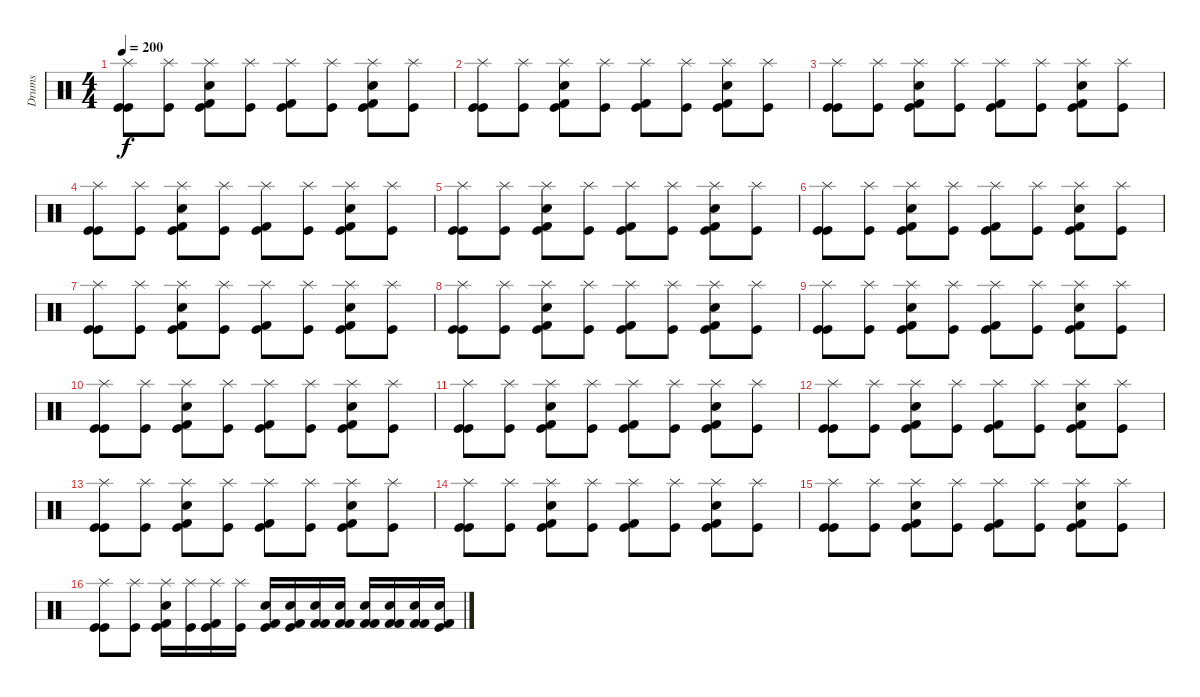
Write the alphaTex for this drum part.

\track ("Drums" "Drums") {instrument percussion}
\staff {score}
\articulation defaults
\ts (4 4)
\tempo 200
\clef neutral
\ks c
("Splash (hit)" "Kick (hit)" "Kick (hit)").8{dy f} ("Splash (hit)" "Kick (hit)").8 ("Splash (hit)" "Snare (hit) 2" "Kick (hit) 2" "Kick (hit)").8 ("Splash (hit)" "Kick (hit)").8 ("Splash (hit)" "Kick (hit) 2" "Kick (hit)").8 ("Splash (hit)" "Kick (hit)").8 ("Splash (hit)" "Snare (hit) 2" "Kick (hit) 2" "Kick (hit)").8 ("Splash (hit)" "Kick (hit)").8 |
("Splash (hit)" "Kick (hit)" "Kick (hit)").8 ("Splash (hit)" "Kick (hit)").8 ("Splash (hit)" "Snare (hit) 2" "Kick (hit) 2" "Kick (hit)").8 ("Splash (hit)" "Kick (hit)").8 ("Splash (hit)" "Kick (hit) 2" "Kick (hit)").8 ("Splash (hit)" "Kick (hit)").8 ("Splash (hit)" "Snare (hit) 2" "Kick (hit) 2" "Kick (hit)").8 ("Splash (hit)" "Kick (hit)").8 |
("Splash (hit)" "Kick (hit)" "Kick (hit)").8 ("Splash (hit)" "Kick (hit)").8 ("Splash (hit)" "Snare (hit) 2" "Kick (hit) 2" "Kick (hit)").8 ("Splash (hit)" "Kick (hit)").8 ("Splash (hit)" "Kick (hit) 2" "Kick (hit)").8 ("Splash (hit)" "Kick (hit)").8 ("Splash (hit)" "Snare (hit) 2" "Kick (hit) 2" "Kick (hit)").8 ("Splash (hit)" "Kick (hit)").8 |
("Splash (hit)" "Kick (hit)" "Kick (hit)").8 ("Splash (hit)" "Kick (hit)").8 ("Splash (hit)" "Snare (hit) 2" "Kick (hit) 2" "Kick (hit)").8 ("Splash (hit)" "Kick (hit)").8 ("Splash (hit)" "Kick (hit) 2" "Kick (hit)").8 ("Splash (hit)" "Kick (hit)").8 ("Splash (hit)" "Snare (hit) 2" "Kick (hit) 2" "Kick (hit)").8 ("Splash (hit)" "Kick (hit)").8 |
("Splash (hit)" "Kick (hit)" "Kick (hit)").8 ("Splash (hit)" "Kick (hit)").8 ("Splash (hit)" "Snare (hit) 2" "Kick (hit) 2" "Kick (hit)").8 ("Splash (hit)" "Kick (hit)").8 ("Splash (hit)" "Kick (hit) 2" "Kick (hit)").8 ("Splash (hit)" "Kick (hit)").8 ("Splash (hit)" "Snare (hit) 2" "Kick (hit) 2" "Kick (hit)").8 ("Splash (hit)" "Kick (hit)").8 |
("Splash (hit)" "Kick (hit)" "Kick (hit)").8 ("Splash (hit)" "Kick (hit)").8 ("Splash (hit)" "Snare (hit) 2" "Kick (hit) 2" "Kick (hit)").8 ("Splash (hit)" "Kick (hit)").8 ("Splash (hit)" "Kick (hit) 2" "Kick (hit)").8 ("Splash (hit)" "Kick (hit)").8 ("Splash (hit)" "Snare (hit) 2" "Kick (hit) 2" "Kick (hit)").8 ("Splash (hit)" "Kick (hit)").8 |
("Splash (hit)" "Kick (hit)" "Kick (hit)").8 ("Splash (hit)" "Kick (hit)").8 ("Splash (hit)" "Snare (hit) 2" "Kick (hit) 2" "Kick (hit)").8 ("Splash (hit)" "Kick (hit)").8 ("Splash (hit)" "Kick (hit) 2" "Kick (hit)").8 ("Splash (hit)" "Kick (hit)").8 ("Splash (hit)" "Snare (hit) 2" "Kick (hit) 2" "Kick (hit)").8 ("Splash (hit)" "Kick (hit)").8 |
("Splash (hit)" "Kick (hit)" "Kick (hit)").8 ("Splash (hit)" "Kick (hit)").8 ("Splash (hit)" "Snare (hit) 2" "Kick (hit) 2" "Kick (hit)").8 ("Splash (hit)" "Kick (hit)").8 ("Splash (hit)" "Kick (hit) 2" "Kick (hit)").8 ("Splash (hit)" "Kick (hit)").8 ("Splash (hit)" "Snare (hit) 2" "Kick (hit) 2" "Kick (hit)").8 ("Splash (hit)" "Kick (hit)").8 |
("Splash (hit)" "Kick (hit)" "Kick (hit)").8 ("Splash (hit)" "Kick (hit)").8 ("Splash (hit)" "Snare (hit) 2" "Kick (hit) 2" "Kick (hit)").8 ("Splash (hit)" "Kick (hit)").8 ("Splash (hit)" "Kick (hit) 2" "Kick (hit)").8 ("Splash (hit)" "Kick (hit)").8 ("Splash (hit)" "Snare (hit) 2" "Kick (hit) 2" "Kick (hit)").8 ("Splash (hit)" "Kick (hit)").8 |
("Splash (hit)" "Kick (hit)" "Kick (hit)").8 ("Splash (hit)" "Kick (hit)").8 ("Splash (hit)" "Snare (hit) 2" "Kick (hit) 2" "Kick (hit)").8 ("Splash (hit)" "Kick (hit)").8 ("Splash (hit)" "Kick (hit) 2" "Kick (hit)").8 ("Splash (hit)" "Kick (hit)").8 ("Splash (hit)" "Snare (hit) 2" "Kick (hit) 2" "Kick (hit)").8 ("Splash (hit)" "Kick (hit)").8 |
("Splash (hit)" "Kick (hit)" "Kick (hit)").8 ("Splash (hit)" "Kick (hit)").8 ("Splash (hit)" "Snare (hit) 2" "Kick (hit) 2" "Kick (hit)").8 ("Splash (hit)" "Kick (hit)").8 ("Splash (hit)" "Kick (hit) 2" "Kick (hit)").8 ("Splash (hit)" "Kick (hit)").8 ("Splash (hit)" "Snare (hit) 2" "Kick (hit) 2" "Kick (hit)").8 ("Splash (hit)" "Kick (hit)").8 |
("Splash (hit)" "Kick (hit)" "Kick (hit)").8 ("Splash (hit)" "Kick (hit)").8 ("Splash (hit)" "Snare (hit) 2" "Kick (hit) 2" "Kick (hit)").8 ("Splash (hit)" "Kick (hit)").8 ("Splash (hit)" "Kick (hit) 2" "Kick (hit)").8 ("Splash (hit)" "Kick (hit)").8 ("Splash (hit)" "Snare (hit) 2" "Kick (hit) 2" "Kick (hit)").8 ("Splash (hit)" "Kick (hit)").8 |
("Splash (hit)" "Kick (hit)" "Kick (hit)").8 ("Splash (hit)" "Kick (hit)").8 ("Splash (hit)" "Snare (hit) 2" "Kick (hit) 2" "Kick (hit)").8 ("Splash (hit)" "Kick (hit)").8 ("Splash (hit)" "Kick (hit) 2" "Kick (hit)").8 ("Splash (hit)" "Kick (hit)").8 ("Splash (hit)" "Snare (hit) 2" "Kick (hit) 2" "Kick (hit)").8 ("Splash (hit)" "Kick (hit)").8 |
("Splash (hit)" "Kick (hit)" "Kick (hit)").8 ("Splash (hit)" "Kick (hit)").8 ("Splash (hit)" "Snare (hit) 2" "Kick (hit) 2" "Kick (hit)").8 ("Splash (hit)" "Kick (hit)").8 ("Splash (hit)" "Kick (hit) 2" "Kick (hit)").8 ("Splash (hit)" "Kick (hit)").8 ("Splash (hit)" "Snare (hit) 2" "Kick (hit) 2" "Kick (hit)").8 ("Splash (hit)" "Kick (hit)").8 |
("Splash (hit)" "Kick (hit)" "Kick (hit)").8 ("Splash (hit)" "Kick (hit)").8 ("Splash (hit)" "Snare (hit) 2" "Kick (hit) 2" "Kick (hit)").8 ("Splash (hit)" "Kick (hit)").8 ("Splash (hit)" "Kick (hit) 2" "Kick (hit)").8 ("Splash (hit)" "Kick (hit)").8 ("Splash (hit)" "Snare (hit) 2" "Kick (hit) 2" "Kick (hit)").8 ("Splash (hit)" "Kick (hit)").8 |
("Splash (hit)" "Kick (hit)" "Kick (hit)").8 ("Splash (hit)" "Kick (hit)").8 ("Splash (hit)" "Snare (hit) 2" "Kick (hit) 2" "Kick (hit)").16 ("Splash (hit)" "Kick (hit)").16 ("Splash (hit)" "Kick (hit) 2" "Kick (hit)").16 ("Splash (hit)" "Kick (hit)").16 ("Snare (hit) 2" "Kick (hit) 2" "Kick (hit)").16 ("Snare (hit) 2" "Kick (hit) 2" "Kick (hit)").16 ("Snare (hit) 2" "Kick (hit) 2" "Kick (hit) 2").16 ("Snare (hit) 2" "Kick (hit) 2" "Kick (hit) 2").16 ("Snare (hit) 2" "Kick (hit) 2" "Kick (hit) 2").16 ("Snare (hit) 2" "Kick (hit) 2" "Kick (hit) 2").16 ("Snare (hit) 2" "Kick (hit) 2" "Kick (hit) 2").16 ("Snare (hit) 2" "Kick (hit) 2" "Kick (hit)").16
